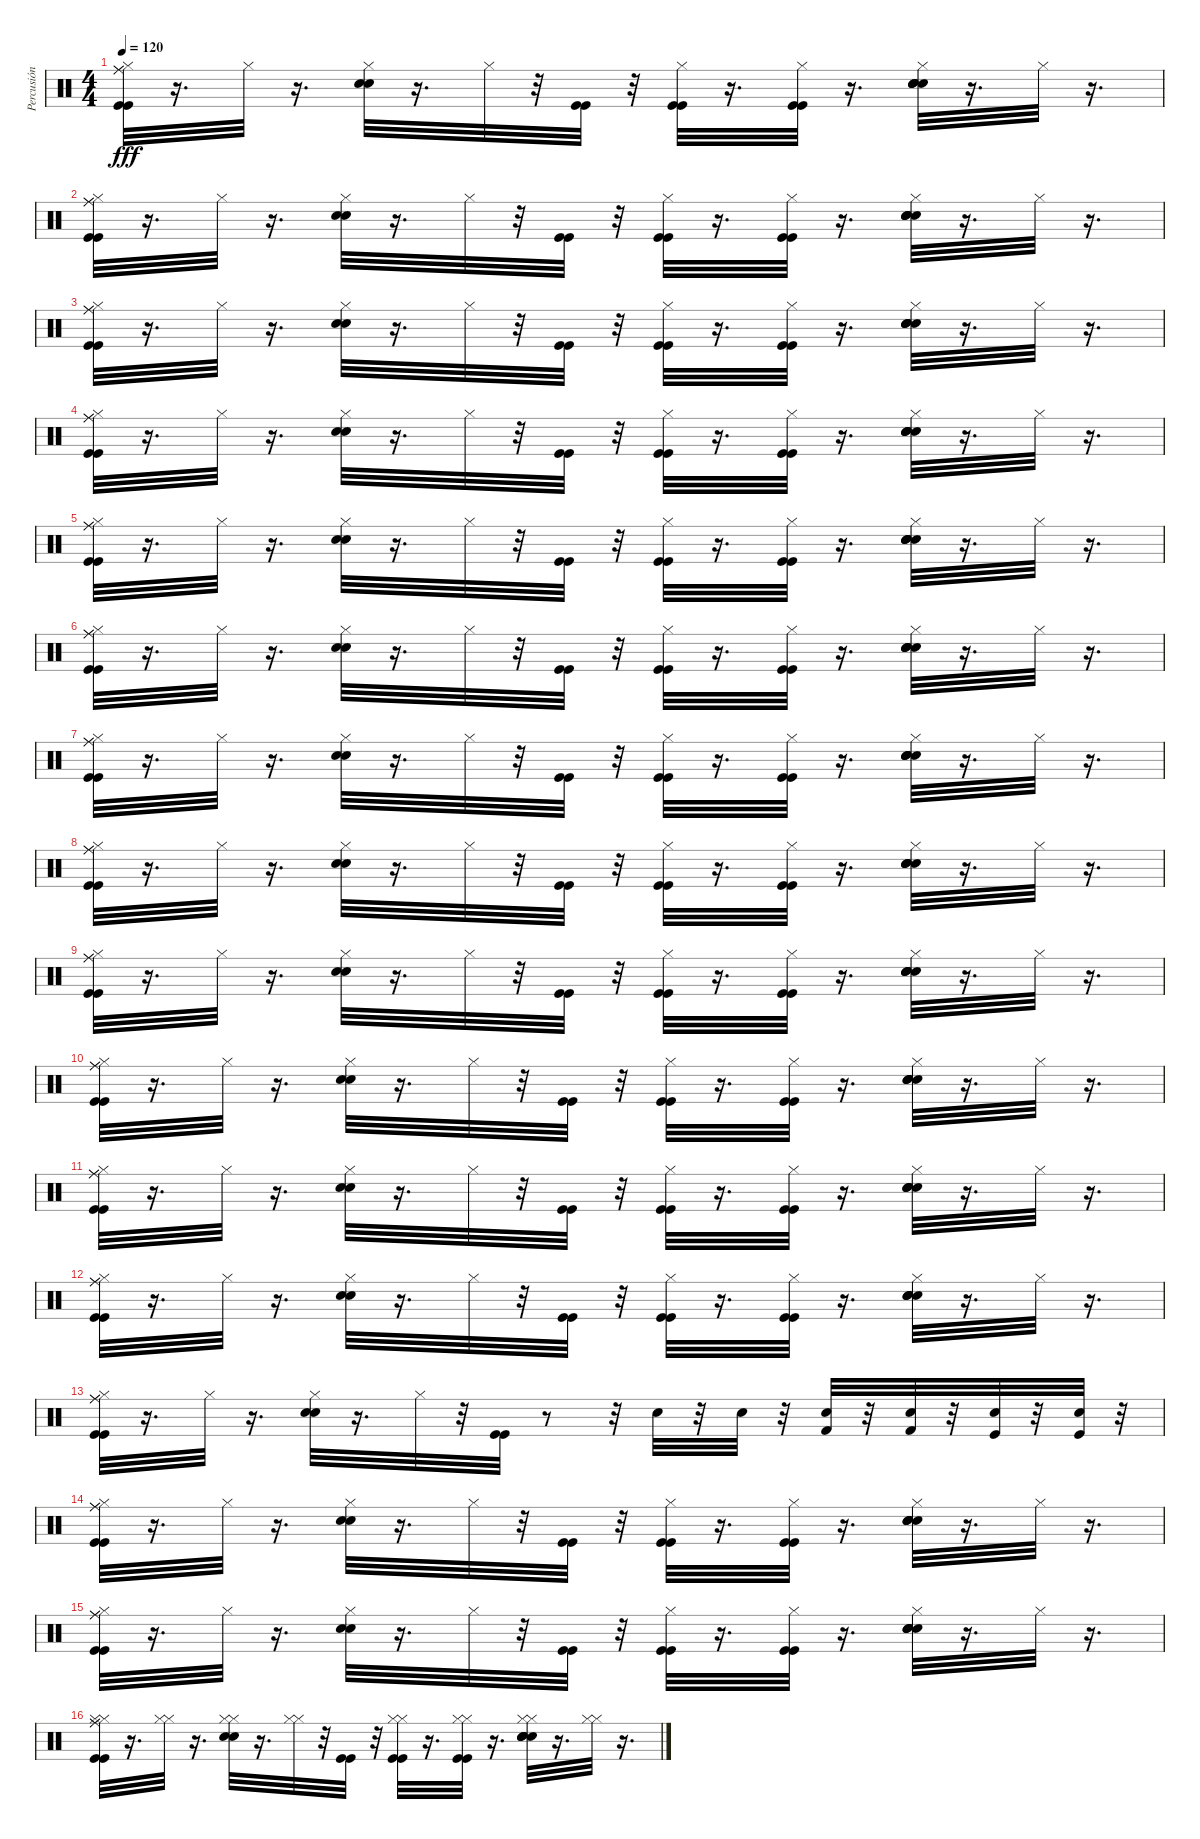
\track ("Percusión" "Percusión") {instrument percussion}
\staff {score}
\articulation defaults
\ts (4 4)
\tempo 120
\clef neutral
\ks c
("Hi-Hat (closed)" "Kick (hit)" "Ride (middle)" "Kick (hit)" "Ride (middle)").32{dy fff} r.16{d} "Hi-Hat (closed)".32 r.16{d} ("Snare (hit) 2" "Electric Snare (hit)" "Hi-Hat (closed)").32 r.16{d} "Hi-Hat (closed)".32 r.32 ("Kick (hit)" "Kick (hit)").32 r.32 ("Hi-Hat (closed)" "Kick (hit)" "Kick (hit)").32 r.16{d} ("Hi-Hat (closed)" "Kick (hit)" "Kick (hit)").32 r.16{d} ("Hi-Hat (closed)" "Snare (hit) 2" "Electric Snare (hit)" "Snare (hit) 2" "Electric Snare (hit)").32 r.16{d} "Hi-Hat (closed)".32 r.16{d} |
("Hi-Hat (closed)" "Kick (hit)" "Ride (middle)" "Kick (hit)" "Ride (middle)").32 r.16{d} "Hi-Hat (closed)".32 r.16{d} ("Snare (hit) 2" "Electric Snare (hit)" "Hi-Hat (closed)").32 r.16{d} "Hi-Hat (closed)".32 r.32 ("Kick (hit)" "Kick (hit)").32 r.32 ("Hi-Hat (closed)" "Kick (hit)" "Kick (hit)").32 r.16{d} ("Hi-Hat (closed)" "Kick (hit)" "Kick (hit)").32 r.16{d} ("Hi-Hat (closed)" "Snare (hit) 2" "Electric Snare (hit)" "Snare (hit) 2" "Electric Snare (hit)").32 r.16{d} "Hi-Hat (closed)".32 r.16{d} |
("Hi-Hat (closed)" "Kick (hit)" "Ride (middle)" "Kick (hit)" "Ride (middle)").32 r.16{d} "Hi-Hat (closed)".32 r.16{d} ("Snare (hit) 2" "Electric Snare (hit)" "Hi-Hat (closed)").32 r.16{d} "Hi-Hat (closed)".32 r.32 ("Kick (hit)" "Kick (hit)").32 r.32 ("Hi-Hat (closed)" "Kick (hit)" "Kick (hit)").32 r.16{d} ("Hi-Hat (closed)" "Kick (hit)" "Kick (hit)").32 r.16{d} ("Hi-Hat (closed)" "Snare (hit) 2" "Electric Snare (hit)" "Snare (hit) 2" "Electric Snare (hit)").32 r.16{d} "Hi-Hat (closed)".32 r.16{d} |
("Hi-Hat (closed)" "Kick (hit)" "Ride (middle)" "Kick (hit)" "Ride (middle)").32 r.16{d} "Hi-Hat (closed)".32 r.16{d} ("Snare (hit) 2" "Electric Snare (hit)" "Hi-Hat (closed)").32 r.16{d} "Hi-Hat (closed)".32 r.32 ("Kick (hit)" "Kick (hit)").32 r.32 ("Hi-Hat (closed)" "Kick (hit)" "Kick (hit)").32 r.16{d} ("Hi-Hat (closed)" "Kick (hit)" "Kick (hit)").32 r.16{d} ("Hi-Hat (closed)" "Snare (hit) 2" "Electric Snare (hit)" "Snare (hit) 2" "Electric Snare (hit)").32 r.16{d} "Hi-Hat (closed)".32 r.16{d} |
("Hi-Hat (closed)" "Kick (hit)" "Ride (middle)" "Kick (hit)" "Ride (middle)").32 r.16{d} "Hi-Hat (closed)".32 r.16{d} ("Snare (hit) 2" "Electric Snare (hit)" "Hi-Hat (closed)").32 r.16{d} "Hi-Hat (closed)".32 r.32 ("Kick (hit)" "Kick (hit)").32 r.32 ("Hi-Hat (closed)" "Kick (hit)" "Kick (hit)").32 r.16{d} ("Hi-Hat (closed)" "Kick (hit)" "Kick (hit)").32 r.16{d} ("Hi-Hat (closed)" "Snare (hit) 2" "Electric Snare (hit)" "Snare (hit) 2" "Electric Snare (hit)").32 r.16{d} "Hi-Hat (closed)".32 r.16{d} |
("Hi-Hat (closed)" "Kick (hit)" "Ride (middle)" "Kick (hit)" "Ride (middle)").32 r.16{d} "Hi-Hat (closed)".32 r.16{d} ("Snare (hit) 2" "Electric Snare (hit)" "Hi-Hat (closed)").32 r.16{d} "Hi-Hat (closed)".32 r.32 ("Kick (hit)" "Kick (hit)").32 r.32 ("Hi-Hat (closed)" "Kick (hit)" "Kick (hit)").32 r.16{d} ("Hi-Hat (closed)" "Kick (hit)" "Kick (hit)").32 r.16{d} ("Hi-Hat (closed)" "Snare (hit) 2" "Electric Snare (hit)" "Snare (hit) 2" "Electric Snare (hit)").32 r.16{d} "Hi-Hat (closed)".32 r.16{d} |
("Hi-Hat (closed)" "Kick (hit)" "Ride (middle)" "Kick (hit)" "Ride (middle)").32 r.16{d} "Hi-Hat (closed)".32 r.16{d} ("Snare (hit) 2" "Electric Snare (hit)" "Hi-Hat (closed)").32 r.16{d} "Hi-Hat (closed)".32 r.32 ("Kick (hit)" "Kick (hit)").32 r.32 ("Hi-Hat (closed)" "Kick (hit)" "Kick (hit)").32 r.16{d} ("Hi-Hat (closed)" "Kick (hit)" "Kick (hit)").32 r.16{d} ("Hi-Hat (closed)" "Snare (hit) 2" "Electric Snare (hit)" "Snare (hit) 2" "Electric Snare (hit)").32 r.16{d} "Hi-Hat (closed)".32 r.16{d} |
("Hi-Hat (closed)" "Kick (hit)" "Ride (middle)" "Kick (hit)" "Ride (middle)").32 r.16{d} "Hi-Hat (closed)".32 r.16{d} ("Snare (hit) 2" "Electric Snare (hit)" "Hi-Hat (closed)").32 r.16{d} "Hi-Hat (closed)".32 r.32 ("Kick (hit)" "Kick (hit)").32 r.32 ("Hi-Hat (closed)" "Kick (hit)" "Kick (hit)").32 r.16{d} ("Hi-Hat (closed)" "Kick (hit)" "Kick (hit)").32 r.16{d} ("Hi-Hat (closed)" "Snare (hit) 2" "Electric Snare (hit)" "Snare (hit) 2" "Electric Snare (hit)").32 r.16{d} "Hi-Hat (closed)".32 r.16{d} |
("Hi-Hat (closed)" "Kick (hit)" "Ride (middle)" "Kick (hit)" "Ride (middle)").32 r.16{d} "Hi-Hat (closed)".32 r.16{d} ("Snare (hit) 2" "Electric Snare (hit)" "Hi-Hat (closed)").32 r.16{d} "Hi-Hat (closed)".32 r.32 ("Kick (hit)" "Kick (hit)").32 r.32 ("Hi-Hat (closed)" "Kick (hit)" "Kick (hit)").32 r.16{d} ("Hi-Hat (closed)" "Kick (hit)" "Kick (hit)").32 r.16{d} ("Hi-Hat (closed)" "Snare (hit) 2" "Electric Snare (hit)" "Snare (hit) 2" "Electric Snare (hit)").32 r.16{d} "Hi-Hat (closed)".32 r.16{d} |
("Hi-Hat (closed)" "Kick (hit)" "Ride (middle)" "Kick (hit)" "Ride (middle)").32 r.16{d} "Hi-Hat (closed)".32 r.16{d} ("Snare (hit) 2" "Electric Snare (hit)" "Hi-Hat (closed)").32 r.16{d} "Hi-Hat (closed)".32 r.32 ("Kick (hit)" "Kick (hit)").32 r.32 ("Hi-Hat (closed)" "Kick (hit)" "Kick (hit)").32 r.16{d} ("Hi-Hat (closed)" "Kick (hit)" "Kick (hit)").32 r.16{d} ("Hi-Hat (closed)" "Snare (hit) 2" "Electric Snare (hit)" "Snare (hit) 2" "Electric Snare (hit)").32 r.16{d} "Hi-Hat (closed)".32 r.16{d} |
("Hi-Hat (closed)" "Kick (hit)" "Ride (middle)" "Kick (hit)" "Ride (middle)").32 r.16{d} "Hi-Hat (closed)".32 r.16{d} ("Snare (hit) 2" "Electric Snare (hit)" "Hi-Hat (closed)").32 r.16{d} "Hi-Hat (closed)".32 r.32 ("Kick (hit)" "Kick (hit)").32 r.32 ("Hi-Hat (closed)" "Kick (hit)" "Kick (hit)").32 r.16{d} ("Hi-Hat (closed)" "Kick (hit)" "Kick (hit)").32 r.16{d} ("Hi-Hat (closed)" "Snare (hit) 2" "Electric Snare (hit)" "Snare (hit) 2" "Electric Snare (hit)").32 r.16{d} "Hi-Hat (closed)".32 r.16{d} |
("Hi-Hat (closed)" "Kick (hit)" "Ride (middle)" "Kick (hit)" "Ride (middle)").32 r.16{d} "Hi-Hat (closed)".32 r.16{d} ("Snare (hit) 2" "Electric Snare (hit)" "Hi-Hat (closed)").32 r.16{d} "Hi-Hat (closed)".32 r.32 ("Kick (hit)" "Kick (hit)").32 r.32 ("Hi-Hat (closed)" "Kick (hit)" "Kick (hit)").32 r.16{d} ("Hi-Hat (closed)" "Kick (hit)" "Kick (hit)").32 r.16{d} ("Hi-Hat (closed)" "Snare (hit) 2" "Electric Snare (hit)" "Snare (hit) 2" "Electric Snare (hit)").32 r.16{d} "Hi-Hat (closed)".32 r.16{d} |
("Hi-Hat (closed)" "Kick (hit)" "Ride (middle)" "Kick (hit)" "Ride (middle)").32 r.16{d} "Hi-Hat (closed)".32 r.16{d} ("Snare (hit) 2" "Electric Snare (hit)" "Hi-Hat (closed)").32 r.16{d} "Hi-Hat (closed)".32 r.32 ("Kick (hit)" "Kick (hit)").32 r.8 r.32 "Electric Snare (hit)".32 r.32 "Electric Snare (hit)".32 r.32 ("Kick (hit) 2" "Electric Snare (hit)").32 r.32 ("Kick (hit) 2" "Electric Snare (hit)").32 r.32 ("Snare (hit) 2" "Kick (hit)").32 r.32 ("Snare (hit) 2" "Kick (hit)").32 r.32 |
("Hi-Hat (closed)" "Kick (hit)" "Ride (middle)" "Kick (hit)" "Ride (middle)").32 r.16{d} "Hi-Hat (closed)".32 r.16{d} ("Snare (hit) 2" "Electric Snare (hit)" "Hi-Hat (closed)").32 r.16{d} "Hi-Hat (closed)".32 r.32 ("Kick (hit)" "Kick (hit)").32 r.32 ("Hi-Hat (closed)" "Kick (hit)" "Kick (hit)").32 r.16{d} ("Hi-Hat (closed)" "Kick (hit)" "Kick (hit)").32 r.16{d} ("Hi-Hat (closed)" "Snare (hit) 2" "Electric Snare (hit)" "Snare (hit) 2" "Electric Snare (hit)").32 r.16{d} "Hi-Hat (closed)".32 r.16{d} |
("Hi-Hat (closed)" "Kick (hit)" "Ride (middle)" "Kick (hit)" "Ride (middle)").32 r.16{d} "Hi-Hat (closed)".32 r.16{d} ("Snare (hit) 2" "Electric Snare (hit)" "Hi-Hat (closed)").32 r.16{d} "Hi-Hat (closed)".32 r.32 ("Kick (hit)" "Kick (hit)").32 r.32 ("Hi-Hat (closed)" "Kick (hit)" "Kick (hit)").32 r.16{d} ("Hi-Hat (closed)" "Kick (hit)" "Kick (hit)").32 r.16{d} ("Hi-Hat (closed)" "Snare (hit) 2" "Electric Snare (hit)" "Snare (hit) 2" "Electric Snare (hit)").32 r.16{d} "Hi-Hat (closed)".32 r.16{d} |
("Kick (hit)" "Hi-Hat (closed)" "Ride (middle)" "Kick (hit)" "Hi-Hat (closed)" "Ride (middle)").32 r.16{d} ("Hi-Hat (closed)" "Hi-Hat (closed)").32 r.16{d} ("Snare (hit) 2" "Electric Snare (hit)" "Hi-Hat (closed)" "Hi-Hat (closed)").32 r.16{d} ("Hi-Hat (closed)" "Hi-Hat (closed)").32 r.32 ("Kick (hit)" "Kick (hit)").32 r.32 ("Kick (hit)" "Hi-Hat (closed)" "Kick (hit)" "Hi-Hat (closed)").32 r.16{d} ("Kick (hit)" "Hi-Hat (closed)" "Kick (hit)" "Hi-Hat (closed)").32 r.16{d} ("Snare (hit) 2" "Electric Snare (hit)" "Hi-Hat (closed)" "Snare (hit) 2" "Electric Snare (hit)" "Hi-Hat (closed)").32 r.16{d} ("Hi-Hat (closed)" "Hi-Hat (closed)").32 r.16{d}
